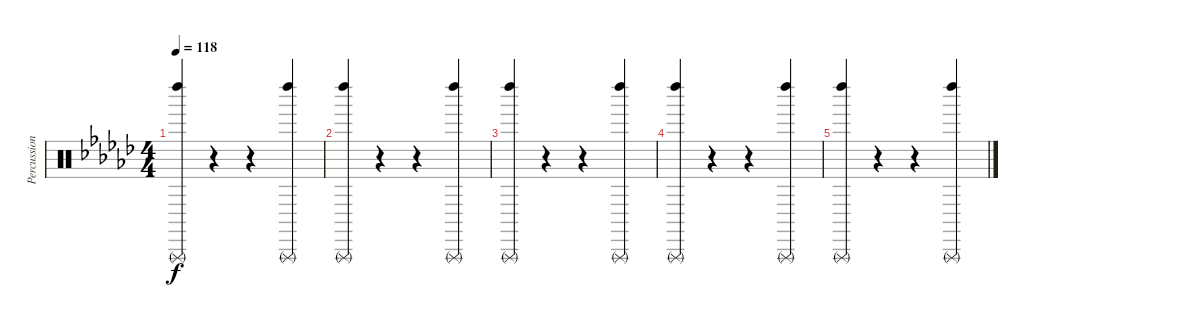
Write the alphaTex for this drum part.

\track ("Percussions 1" "Percussion") {instrument percussion}
\staff {score}
\articulation defaults
\ts (4 4)
\tempo 118
\clef neutral
\ks ebminor
("Triangle (rnute)" "Left Maraca (hit)").4{dy f volume 0} r.4 r.4 ("Triangle (rnute)" "Left Maraca (hit)").4 |
("Triangle (rnute)" "Left Maraca (hit)").4 r.4 r.4 ("Triangle (rnute)" "Left Maraca (hit)").4 |
("Triangle (rnute)" "Left Maraca (hit)").4 r.4 r.4 ("Triangle (rnute)" "Left Maraca (hit)").4 |
("Triangle (rnute)" "Left Maraca (hit)").4 r.4 r.4 ("Triangle (rnute)" "Left Maraca (hit)").4 |
("Triangle (rnute)" "Left Maraca (hit)").4 r.4 r.4 ("Triangle (rnute)" "Left Maraca (hit)").4
